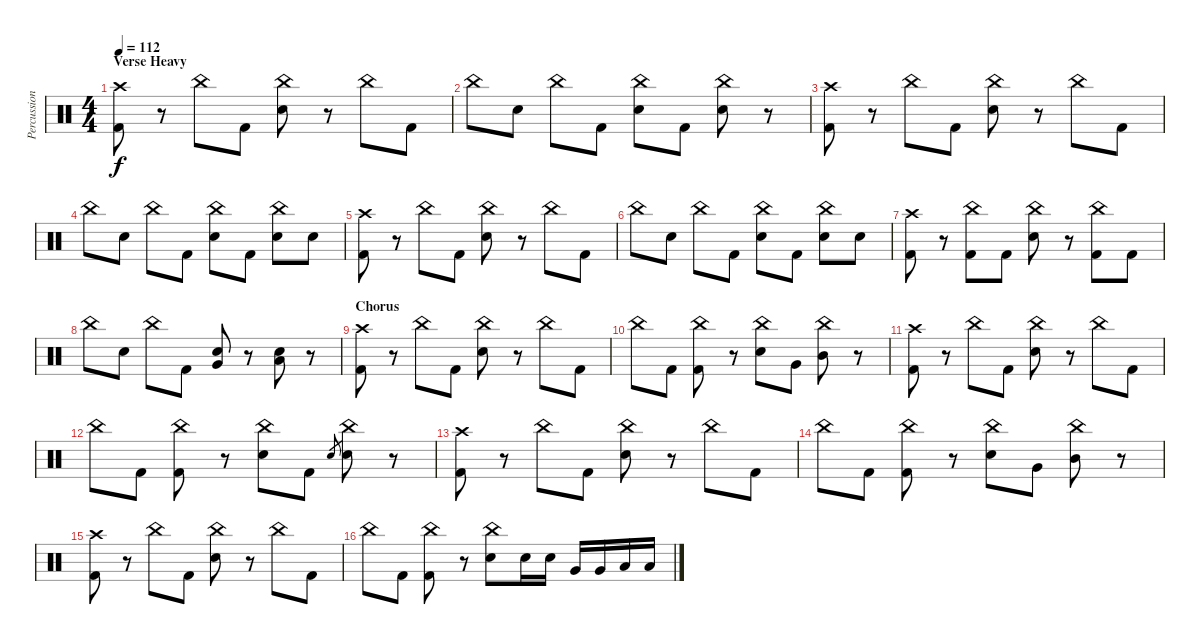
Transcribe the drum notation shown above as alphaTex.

\track ("Percussion" "Percussion") {instrument percussion}
\staff {score}
\articulation defaults
\ts (4 4)
\section ("" "Verse Heavy")
\tempo 112
\clef neutral
\ks c
("Crash high (hit)" "Kick (hit) 2").8{dy f} r.8 "China (hit)".8 "Kick (hit) 2".8 ("China (hit)" "Snare (hit) 2").8 r.8 "China (hit)".8 "Kick (hit) 2".8 |
"China (hit)".8 "Snare (hit) 2".8 "China (hit)".8 "Kick (hit) 2".8 ("China (hit)" "Snare (hit) 2").8 "Kick (hit) 2".8 ("China (hit)" "Snare (hit) 2").8 r.8 |
("Crash high (hit)" "Kick (hit) 2").8 r.8 "China (hit)".8 "Kick (hit) 2".8 ("China (hit)" "Snare (hit) 2").8 r.8 "China (hit)".8 "Kick (hit) 2".8 |
"China (hit)".8 "Snare (hit) 2".8 "China (hit)".8 "Kick (hit) 2".8 ("China (hit)" "Snare (hit) 2").8 "Kick (hit) 2".8 ("China (hit)" "Snare (hit) 2").8 "Snare (hit) 2".8 |
("Crash high (hit)" "Kick (hit) 2").8 r.8 "China (hit)".8 "Kick (hit) 2".8 ("China (hit)" "Snare (hit) 2").8 r.8 "China (hit)".8 "Kick (hit) 2".8 |
"China (hit)".8 "Snare (hit) 2".8 "China (hit)".8 "Kick (hit) 2".8 ("China (hit)" "Snare (hit) 2").8 "Kick (hit) 2".8 ("China (hit)" "Snare (hit) 2").8 "Snare (hit) 2".8 |
("Crash high (hit)" "Kick (hit) 2").8 r.8 ("China (hit)" "Kick (hit) 2").8 "Kick (hit) 2".8 ("China (hit)" "Snare (hit) 2").8 r.8 ("China (hit)" "Kick (hit) 2").8 "Kick (hit) 2".8 |
"China (hit)".8 "Snare (hit) 2".8 "China (hit)".8 "Kick (hit) 2".8 ("Snare (hit) 2" "Very Low Tom (hit)").8 r.8 ("Snare (hit) 2" "Low Floor Tom (hit)").8 r.8 |
\section ("" "Chorus")
("Crash high (hit)" "Kick (hit) 2").8 r.8 "China (hit)".8 "Kick (hit) 2".8 ("China (hit)" "Snare (hit) 2").8 r.8 "China (hit)".8 "Kick (hit) 2".8 |
"China (hit)".8 "Kick (hit) 2".8 ("China (hit)" "Kick (hit) 2").8 r.8 ("China (hit)" "Snare (hit) 2").8 "Very Low Tom (hit)".8 ("China (hit)" "Mid Tom (hit)").8 r.8 |
("Crash high (hit)" "Kick (hit) 2").8 r.8 "China (hit)".8 "Kick (hit) 2".8 ("China (hit)" "Snare (hit) 2").8 r.8 "China (hit)".8 "Kick (hit) 2".8 |
"China (hit)".8 "Kick (hit) 2".8 ("China (hit)" "Kick (hit) 2").8 r.8 ("China (hit)" "Snare (hit) 2").8 "Kick (hit) 2".8 "Snare (hit) 2".8{gr} ("China (hit)" "Snare (hit) 2").8 r.8 |
("Crash high (hit)" "Kick (hit) 2").8 r.8 "China (hit)".8 "Kick (hit) 2".8 ("China (hit)" "Snare (hit) 2").8 r.8 "China (hit)".8 "Kick (hit) 2".8 |
"China (hit)".8 "Kick (hit) 2".8 ("China (hit)" "Kick (hit) 2").8 r.8 ("China (hit)" "Snare (hit) 2").8 "Very Low Tom (hit)".8 ("China (hit)" "Mid Tom (hit)").8 r.8 |
("Crash high (hit)" "Kick (hit) 2").8 r.8 "China (hit)".8 "Kick (hit) 2".8 ("China (hit)" "Snare (hit) 2").8 r.8 "China (hit)".8 "Kick (hit) 2".8 |
"China (hit)".8 "Kick (hit) 2".8 ("China (hit)" "Kick (hit) 2").8 r.8 ("China (hit)" "Snare (hit) 2").8 "Snare (hit) 2".16 "Snare (hit) 2".16 "Very Low Tom (hit)".16 "Very Low Tom (hit)".16 "Low Floor Tom (hit)".16 "Low Floor Tom (hit)".16
